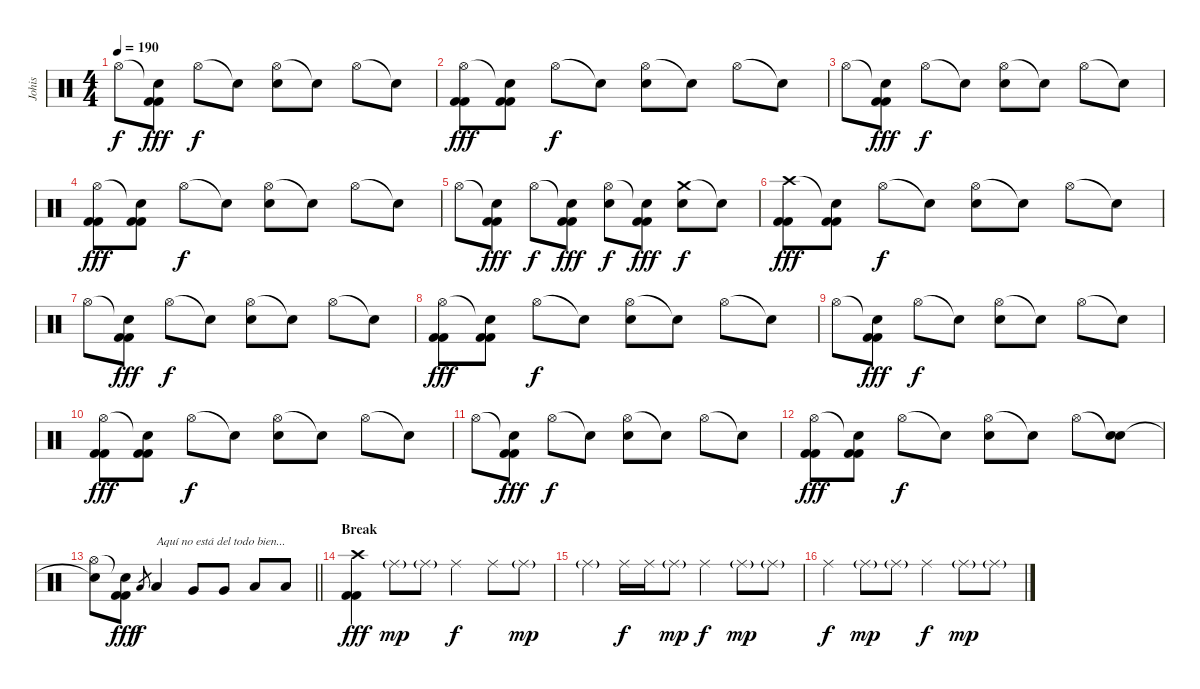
\track ("Johis" "Johis") {instrument percussion}
\staff {score}
\articulation defaults
\ts (4 4)
\tempo 190
\clef neutral
\ks c "Hi-Hat (open)".8{dy f}
("Snare (hit)"{t} "Kick (hit) 2" "Kick (hit) 2").8{dy fff} "Hi-Hat (open)".8{dy f} "Snare (hit)"{t}.8 ("Hi-Hat (open)" "Electric Snare (hit)").8 "Snare (hit)"{t}.8 "Hi-Hat (open)".8 "Snare (hit)"{t}.8 |
("Hi-Hat (open)" "Kick (hit) 2" "Kick (hit) 2").8{dy fff} ("Snare (hit)"{t} "Kick (hit) 2" "Kick (hit) 2").8 "Hi-Hat (open)".8{dy f} "Snare (hit)"{t}.8 ("Hi-Hat (open)" "Electric Snare (hit)").8 "Snare (hit)"{t}.8 "Hi-Hat (open)".8 "Snare (hit)"{t}.8 |
"Hi-Hat (open)".8 ("Snare (hit)"{t} "Kick (hit) 2" "Kick (hit) 2").8{dy fff} "Hi-Hat (open)".8{dy f} "Snare (hit)"{t}.8 ("Hi-Hat (open)" "Electric Snare (hit)").8 "Snare (hit)"{t}.8 "Hi-Hat (open)".8 "Snare (hit)"{t}.8 |
("Hi-Hat (open)" "Kick (hit) 2" "Kick (hit) 2").8{dy fff} ("Snare (hit)"{t} "Kick (hit) 2" "Kick (hit) 2").8 "Hi-Hat (open)".8{dy f} "Snare (hit)"{t}.8 ("Hi-Hat (open)" "Electric Snare (hit)").8 "Snare (hit)"{t}.8 "Hi-Hat (open)".8 "Snare (hit)"{t}.8 |
"Hi-Hat (open)".8 ("Snare (hit)"{t} "Kick (hit) 2" "Kick (hit) 2").8{dy fff} "Hi-Hat (open)".8{dy f} ("Snare (hit)"{t} "Kick (hit) 2" "Kick (hit) 2").8{dy fff} ("Hi-Hat (open)" "Electric Snare (hit)").8{dy f} ("Snare (hit)"{t} "Kick (hit) 2" "Kick (hit) 2").8{dy fff} ("Crash medium (hit)" "Electric Snare (hit)").8{dy f} "Snare (hit)"{t}.8 |
("Crash high (hit)" "Kick (hit) 2" "Kick (hit) 2").8{dy fff} ("Snare (hit)"{t} "Kick (hit) 2" "Kick (hit) 2").8 "Hi-Hat (open)".8{dy f} "Snare (hit)"{t}.8 ("Hi-Hat (open)" "Electric Snare (hit)").8 "Snare (hit)"{t}.8 "Hi-Hat (open)".8 "Snare (hit)"{t}.8 |
"Hi-Hat (open)".8 ("Snare (hit)"{t} "Kick (hit) 2" "Kick (hit) 2").8{dy fff} "Hi-Hat (open)".8{dy f} "Snare (hit)"{t}.8 ("Hi-Hat (open)" "Electric Snare (hit)").8 "Snare (hit)"{t}.8 "Hi-Hat (open)".8 "Snare (hit)"{t}.8 |
("Hi-Hat (open)" "Kick (hit) 2" "Kick (hit) 2").8{dy fff} ("Snare (hit)"{t} "Kick (hit) 2" "Kick (hit) 2").8 "Hi-Hat (open)".8{dy f} "Snare (hit)"{t}.8 ("Hi-Hat (open)" "Electric Snare (hit)").8 "Snare (hit)"{t}.8 "Hi-Hat (open)".8 "Snare (hit)"{t}.8 |
"Hi-Hat (open)".8 ("Snare (hit)"{t} "Kick (hit) 2" "Kick (hit) 2").8{dy fff} "Hi-Hat (open)".8{dy f} "Snare (hit)"{t}.8 ("Hi-Hat (open)" "Electric Snare (hit)").8 "Snare (hit)"{t}.8 "Hi-Hat (open)".8 "Snare (hit)"{t}.8 |
("Hi-Hat (open)" "Kick (hit) 2" "Kick (hit) 2").8{dy fff} ("Snare (hit)"{t} "Kick (hit) 2" "Kick (hit) 2").8 "Hi-Hat (open)".8{dy f} "Snare (hit)"{t}.8 ("Hi-Hat (open)" "Electric Snare (hit)").8 "Snare (hit)"{t}.8 "Hi-Hat (open)".8 "Snare (hit)"{t}.8 |
"Hi-Hat (open)".8 ("Snare (hit)"{t} "Kick (hit) 2" "Kick (hit) 2").8{dy fff} "Hi-Hat (open)".8{dy f} "Snare (hit)"{t}.8 ("Hi-Hat (open)" "Electric Snare (hit)").8 "Snare (hit)"{t}.8 "Hi-Hat (open)".8 "Snare (hit)"{t}.8 |
("Hi-Hat (open)" "Kick (hit) 2" "Kick (hit) 2").8{dy fff} ("Snare (hit)"{t} "Kick (hit) 2" "Kick (hit) 2").8 "Hi-Hat (open)".8{dy f} "Snare (hit)"{t}.8 ("Hi-Hat (open)" "Electric Snare (hit)").8 "Snare (hit)"{t}.8 "Hi-Hat (open)".8 ("Snare (hit)"{t} "Electric Snare (hit)").8 |
\barLineRight lightlight
("Hi-Hat (open)" "Snare (hit)"{t}).8 ("Snare (hit)"{t} "Kick (hit) 2" "Kick (hit) 2").8{dy fff} "Low Tom (hit)".8{gr dy f} "Low Tom (hit)".4{txt "Aquí no está del todo bien..."} "Very Low Tom (hit)".8 "Very Low Tom (hit)".8 "Low Floor Tom (hit)".8 "Low Floor Tom (hit)".8 |
\section ("" "Break")
("Crash high (hit)" "Kick (hit) 2" "Kick (hit) 2").4{dy fff} "Ride (middle)"{g}.8{dy mp} "Ride (middle)"{g}.8 "Ride (middle)".4{dy f} "Ride (middle)".8 "Ride (middle)"{g}.8{dy mp} |
"Ride (middle)"{g}.4 "Ride (middle)".16{dy f} "Ride (middle)".16 "Ride (middle)"{g}.8{dy mp} "Ride (middle)".4{dy f} "Ride (middle)"{g}.8{dy mp} "Ride (middle)"{g}.8 |
"Ride (middle)".4{dy f} "Ride (middle)"{g}.8{dy mp} "Ride (middle)"{g}.8 "Ride (middle)".4{dy f} "Ride (middle)"{g}.8{dy mp} "Ride (middle)"{g}.8
